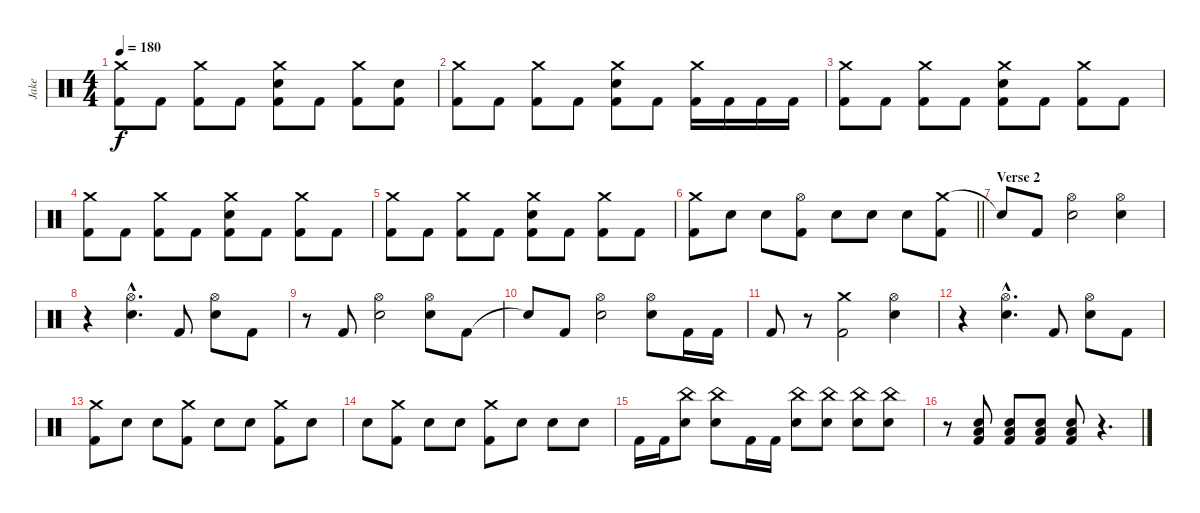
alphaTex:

\track ("Jake" "Jake") {instrument percussion}
\staff {score}
\articulation defaults
\ts (4 4)
\tempo 180
\clef neutral
\ks c
("Crash medium (hit)" "Kick (hit) 2").8{dy f} "Kick (hit) 2".8 ("Crash medium (hit)" "Kick (hit) 2").8 "Kick (hit) 2".8 ("Crash medium (hit)" "Electric Snare (hit)" "Kick (hit) 2").8 "Kick (hit) 2".8 ("Crash medium (hit)" "Kick (hit) 2").8 ("Electric Snare (hit)" "Kick (hit) 2").8 |
("Crash medium (hit)" "Kick (hit) 2").8 "Kick (hit) 2".8 ("Crash medium (hit)" "Kick (hit) 2").8 "Kick (hit) 2".8 ("Crash medium (hit)" "Electric Snare (hit)" "Kick (hit) 2").8 "Kick (hit) 2".8 ("Crash medium (hit)" "Kick (hit) 2").16 "Kick (hit) 2".16 "Kick (hit) 2".16 "Kick (hit) 2".16 |
("Crash medium (hit)" "Kick (hit) 2").8 "Kick (hit) 2".8 ("Crash medium (hit)" "Kick (hit) 2").8 "Kick (hit) 2".8 ("Crash medium (hit)" "Electric Snare (hit)" "Kick (hit) 2").8 "Kick (hit) 2".8 ("Crash medium (hit)" "Kick (hit) 2").8 "Kick (hit) 2".8 |
("Crash medium (hit)" "Kick (hit) 2").8 "Kick (hit) 2".8 ("Crash medium (hit)" "Kick (hit) 2").8 "Kick (hit) 2".8 ("Crash medium (hit)" "Electric Snare (hit)" "Kick (hit) 2").8 "Kick (hit) 2".8 ("Crash medium (hit)" "Kick (hit) 2").8 "Kick (hit) 2".8 |
("Crash medium (hit)" "Kick (hit) 2").8 "Kick (hit) 2".8 ("Crash medium (hit)" "Kick (hit) 2").8 "Kick (hit) 2".8 ("Crash medium (hit)" "Electric Snare (hit)" "Kick (hit) 2").8 "Kick (hit) 2".8 ("Crash medium (hit)" "Kick (hit) 2").8 "Kick (hit) 2".8 |
\barLineRight lightlight
("Crash medium (hit)" "Kick (hit) 2").8 "Electric Snare (hit)".8 "Electric Snare (hit)".8 ("Hi-Hat (open)" "Kick (hit) 2").8 "Electric Snare (hit)".8 "Electric Snare (hit)".8 "Electric Snare (hit)".8 ("Crash medium (hit)" "Kick (hit) 2").8 |
\section ("" "Verse 2")
"Snare (hit)"{t}.8 "Kick (hit) 2".8 ("Hi-Hat (open)" "Electric Snare (hit)").2 ("Hi-Hat (open)" "Electric Snare (hit)").4 |
r.4 ("Hi-Hat (open)"{hac} "Electric Snare (hit)"{hac}).4{d} "Kick (hit) 2".8 ("Hi-Hat (open)" "Electric Snare (hit)").8 "Kick (hit) 2".8 |
r.8 "Kick (hit) 2".8 ("Hi-Hat (open)" "Electric Snare (hit)").2 ("Hi-Hat (open)" "Electric Snare (hit)").8 "Kick (hit) 2".8 |
"Snare (hit)"{t}.8 "Kick (hit) 2".8 ("Hi-Hat (open)" "Electric Snare (hit)").2 ("Hi-Hat (open)" "Electric Snare (hit)").8 "Kick (hit) 2".16 "Kick (hit) 2".16 |
"Kick (hit) 2".8 r.8 ("Crash medium (hit)" "Kick (hit) 2").2 ("Hi-Hat (open)" "Electric Snare (hit)").4 |
r.4 ("Hi-Hat (open)"{hac} "Electric Snare (hit)"{hac}).4{d} "Kick (hit) 2".8 ("Hi-Hat (open)" "Electric Snare (hit)").8 "Kick (hit) 2".8 |
("Crash medium (hit)" "Kick (hit) 2").8 "Electric Snare (hit)".8 "Electric Snare (hit)".8 ("Crash medium (hit)" "Kick (hit) 2").8 "Electric Snare (hit)".8 "Electric Snare (hit)".8 ("Crash medium (hit)" "Kick (hit) 2").8 "Electric Snare (hit)".8 |
"Electric Snare (hit)".8 ("Crash medium (hit)" "Kick (hit) 2").8 "Electric Snare (hit)".8 "Electric Snare (hit)".8 ("Crash medium (hit)" "Kick (hit) 2").8 "Electric Snare (hit)".8 "Electric Snare (hit)".8 "Electric Snare (hit)".8 |
"Kick (hit) 2".16 "Kick (hit) 2".16 ("China (hit)" "Electric Snare (hit)").8 ("China (hit)" "Electric Snare (hit)").8 "Kick (hit) 2".16 "Kick (hit) 2".16 ("China (hit)" "Electric Snare (hit)").8 ("China (hit)" "Electric Snare (hit)").8 ("China (hit)" "Electric Snare (hit)").8 ("China (hit)" "Electric Snare (hit)").8 |
r.8 ("Electric Snare (hit)" "Low Floor Tom (hit)" "Kick (hit) 2").8 ("Electric Snare (hit)" "Low Floor Tom (hit)" "Kick (hit) 2").8 ("Electric Snare (hit)" "Low Floor Tom (hit)" "Kick (hit) 2").8 ("Electric Snare (hit)" "Low Floor Tom (hit)" "Kick (hit) 2").8 r.4{d}
